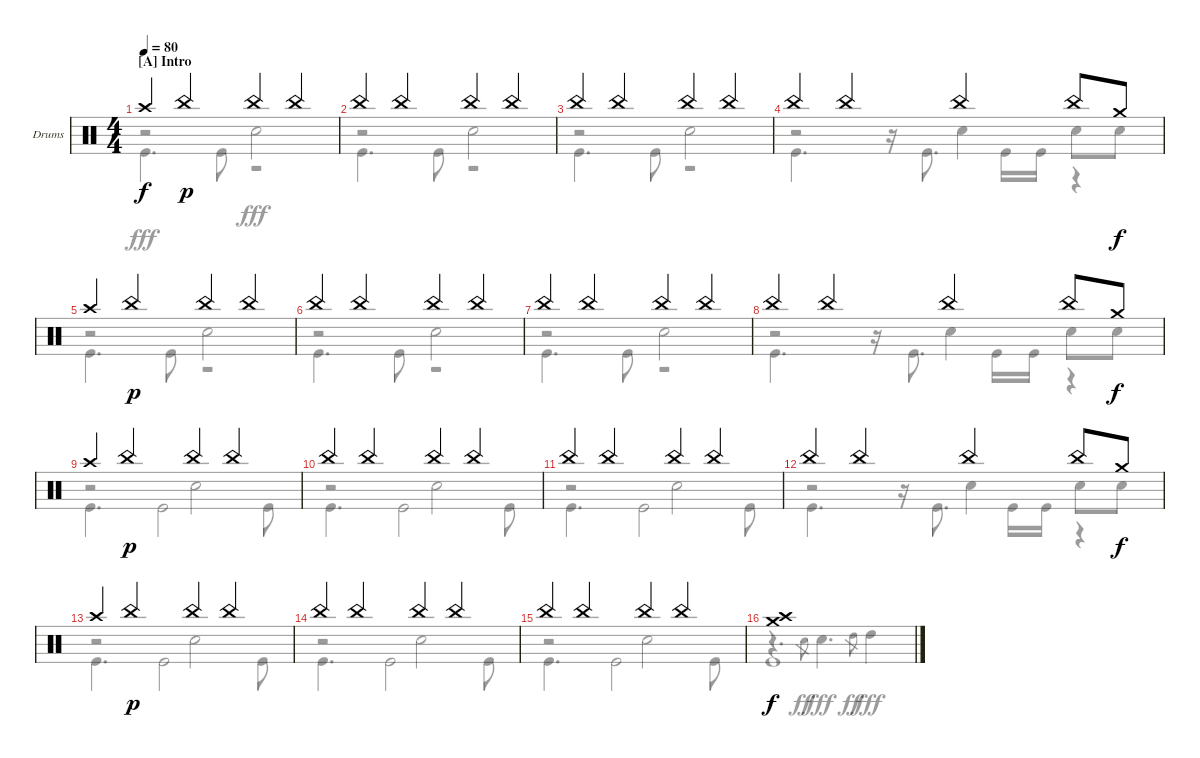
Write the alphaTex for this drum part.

\defaultSystemsLayout 4
\bracketExtendMode groupsimilarinstruments
\firstSystemTrackNameOrientation horizontal
\otherSystemsTrackNameOrientation horizontal
\track ("Drumkit" "Drums") {instrument percussion}
\staff {score}
\articulation defaults
\voice
\ts (4 4)
\section ("A" "Intro")
\tempo 80
\clef neutral
\scale
0.474178
\ks c "Crash high (hit)".4{dy f} "China (hit)".4{dy p} "China (hit)".4 "China (hit)".4
|
\scale
0.262911 "China (hit)".4 "China (hit)".4 "China (hit)".4 "China (hit)".4 |
\scale
0.262911 "China (hit)".4 "China (hit)".4 "China (hit)".4 "China (hit)".4 |
\scale
0.333333 "China (hit)".4 "China (hit)".4 "China (hit)".4 "China (hit)".8 "Crash medium (hit)".8{dy f} |
\scale
0.333333 "Crash high (hit)".4 "China (hit)".4{dy p} "China (hit)".4 "China (hit)".4 |
\scale
0.333333 "China (hit)".4 "China (hit)".4 "China (hit)".4 "China (hit)".4 |
\scale
0.333333 "China (hit)".4 "China (hit)".4 "China (hit)".4 "China (hit)".4 |
\scale
0.333333 "China (hit)".4 "China (hit)".4 "China (hit)".4 "China (hit)".8 "Crash medium (hit)".8{dy f} |
\scale
0.333333 "Crash high (hit)".4 "China (hit)".4{dy p} "China (hit)".4 "China (hit)".4 |
\scale
0.333333 "China (hit)".4 "China (hit)".4 "China (hit)".4 "China (hit)".4 |
\scale
0.333333 "China (hit)".4 "China (hit)".4 "China (hit)".4 "China (hit)".4 |
\scale
0.333333 "China (hit)".4 "China (hit)".4 "China (hit)".4 "China (hit)".8 "Crash medium (hit)".8{dy f} |
\scale
0.333333 "Crash high (hit)".4 "China (hit)".4{dy p} "China (hit)".4 "China (hit)".4 |
\scale
0.333333 "China (hit)".4 "China (hit)".4 "China (hit)".4 "China (hit)".4 |
\scale
0.333333 "China (hit)".4 "China (hit)".4 "China (hit)".4 "China (hit)".4 |
\scale
0.333333 ("Crash medium (hit)" "Crash high (hit)").1{dy f}
\voice
\clef neutral
\ottava regular
\simile none
\scale
0.474178
\ks c
r.2{dy fff} "Snare (hit) 2".2 |
\scale
0.262911 r.2 "Snare (hit) 2".2 |
\scale
0.262911 r.2 "Snare (hit) 2".2 |
\scale
0.333333 r.2 "Snare (hit) 2".4 "Snare (hit) 2".8 "Snare (hit) 2".8 |
\scale
0.333333 r.2 "Snare (hit) 2".2 |
\scale
0.333333 r.2 "Snare (hit) 2".2 |
\scale
0.333333 r.2 "Snare (hit) 2".2 |
\scale
0.333333 r.2 "Snare (hit) 2".4 "Snare (hit) 2".8 "Snare (hit) 2".8 |
\scale
0.333333 r.2 "Snare (hit) 2".2 |
\scale
0.333333 r.2 "Snare (hit) 2".2 |
\scale
0.333333 r.2 "Snare (hit) 2".2 |
\scale
0.333333 r.2 "Snare (hit) 2".4 "Snare (hit) 2".8 "Snare (hit) 2".8 |
\scale
0.333333 r.2 "Snare (hit) 2".2 |
\scale
0.333333 r.2 "Snare (hit) 2".2 |
\scale
0.333333 r.2 "Snare (hit) 2".2 |
\scale
0.333333 r.4{d} "Snare (hit) 2".8{gr dy ff} "Snare (hit) 2".4{d dy fff} "High Tom (hit)".8{gr dy ff} "High Tom (hit)".4{dy fff}
\voice
\clef neutral
\ottava regular
\simile none
\scale
0.474178
\ks c "Kick (hit)".4{d dy fff} "Kick (hit)".8
r.2 |
\scale
0.262911 "Kick (hit)".4{d} "Kick (hit)".8 r.2 |
\scale
0.262911 "Kick (hit)".4{d} "Kick (hit)".8 r.2 |
\scale
0.333333 "Kick (hit)".4{d} r.16 "Kick (hit)".8{d} "Kick (hit)".16 "Kick (hit)".16 r.4 |
\scale
0.333333 "Kick (hit)".4{d} "Kick (hit)".8 r.2 |
\scale
0.333333 "Kick (hit)".4{d} "Kick (hit)".8 r.2 |
\scale
0.333333 "Kick (hit)".4{d} "Kick (hit)".8 r.2 |
\scale
0.333333 "Kick (hit)".4{d} r.16 "Kick (hit)".8{d} "Kick (hit)".16 "Kick (hit)".16 r.4 |
\scale
0.333333 "Kick (hit)".4{d} "Kick (hit)".2 "Kick (hit)".8 |
\scale
0.333333 "Kick (hit)".4{d} "Kick (hit)".2 "Kick (hit)".8 |
\scale
0.333333 "Kick (hit)".4{d} "Kick (hit)".2 "Kick (hit)".8 |
\scale
0.333333 "Kick (hit)".4{d} r.16 "Kick (hit)".8{d} "Kick (hit)".16 "Kick (hit)".16 r.4 |
\scale
0.333333 "Kick (hit)".4{d} "Kick (hit)".2 "Kick (hit)".8 |
\scale
0.333333 "Kick (hit)".4{d} "Kick (hit)".2 "Kick (hit)".8 |
\scale
0.333333 "Kick (hit)".4{d} "Kick (hit)".2 "Kick (hit)".8 |
\scale
0.333333 "Kick (hit)".1
